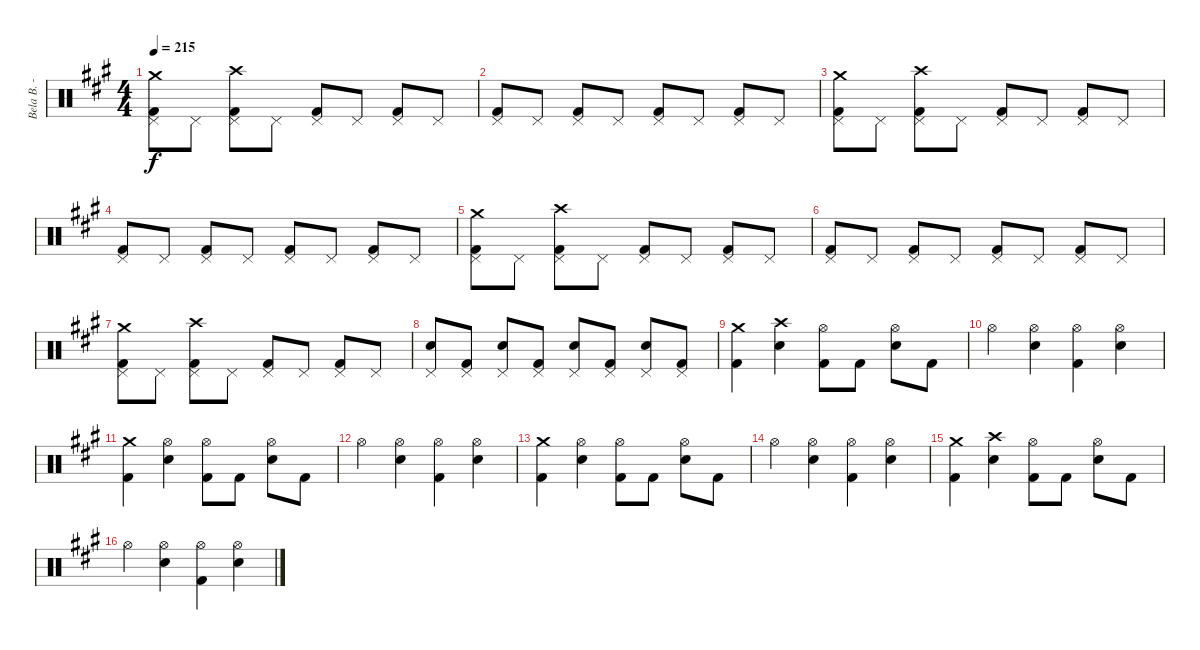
\track ("Bela B. - Schlagzeug" "Bela B. - ") {instrument percussion}
\staff {score}
\articulation defaults
\ts (4 4)
\tempo 215
\clef neutral
\ks a
("Crash medium (hit)" "Pedal Hi-Hat (hit)" "Kick (hit) 2").8{dy f} "Pedal Hi-Hat (hit)".8 ("Crash high (hit)" "Pedal Hi-Hat (hit)" "Kick (hit) 2").8 "Pedal Hi-Hat (hit)".8 ("Pedal Hi-Hat (hit)" "Kick (hit) 2").8 "Pedal Hi-Hat (hit)".8 ("Pedal Hi-Hat (hit)" "Kick (hit) 2").8 "Pedal Hi-Hat (hit)".8 |
("Pedal Hi-Hat (hit)" "Kick (hit) 2").8 "Pedal Hi-Hat (hit)".8 ("Pedal Hi-Hat (hit)" "Kick (hit) 2").8 "Pedal Hi-Hat (hit)".8 ("Pedal Hi-Hat (hit)" "Kick (hit) 2").8 "Pedal Hi-Hat (hit)".8 ("Pedal Hi-Hat (hit)" "Kick (hit) 2").8 "Pedal Hi-Hat (hit)".8 |
("Crash medium (hit)" "Pedal Hi-Hat (hit)" "Kick (hit) 2").8 "Pedal Hi-Hat (hit)".8 ("Crash high (hit)" "Pedal Hi-Hat (hit)" "Kick (hit) 2").8 "Pedal Hi-Hat (hit)".8 ("Pedal Hi-Hat (hit)" "Kick (hit) 2").8 "Pedal Hi-Hat (hit)".8 ("Pedal Hi-Hat (hit)" "Kick (hit) 2").8 "Pedal Hi-Hat (hit)".8 |
("Pedal Hi-Hat (hit)" "Kick (hit) 2").8 "Pedal Hi-Hat (hit)".8 ("Pedal Hi-Hat (hit)" "Kick (hit) 2").8 "Pedal Hi-Hat (hit)".8 ("Pedal Hi-Hat (hit)" "Kick (hit) 2").8 "Pedal Hi-Hat (hit)".8 ("Pedal Hi-Hat (hit)" "Kick (hit) 2").8 "Pedal Hi-Hat (hit)".8 |
("Crash medium (hit)" "Pedal Hi-Hat (hit)" "Kick (hit) 2").8 "Pedal Hi-Hat (hit)".8 ("Crash high (hit)" "Pedal Hi-Hat (hit)" "Kick (hit) 2").8 "Pedal Hi-Hat (hit)".8 ("Pedal Hi-Hat (hit)" "Kick (hit) 2").8 "Pedal Hi-Hat (hit)".8 ("Pedal Hi-Hat (hit)" "Kick (hit) 2").8 "Pedal Hi-Hat (hit)".8 |
("Pedal Hi-Hat (hit)" "Kick (hit) 2").8 "Pedal Hi-Hat (hit)".8 ("Pedal Hi-Hat (hit)" "Kick (hit) 2").8 "Pedal Hi-Hat (hit)".8 ("Pedal Hi-Hat (hit)" "Kick (hit) 2").8 "Pedal Hi-Hat (hit)".8 ("Pedal Hi-Hat (hit)" "Kick (hit) 2").8 "Pedal Hi-Hat (hit)".8 |
("Crash medium (hit)" "Pedal Hi-Hat (hit)" "Kick (hit) 2").8 "Pedal Hi-Hat (hit)".8 ("Crash high (hit)" "Pedal Hi-Hat (hit)" "Kick (hit) 2").8 "Pedal Hi-Hat (hit)".8 ("Pedal Hi-Hat (hit)" "Kick (hit) 2").8 "Pedal Hi-Hat (hit)".8 ("Pedal Hi-Hat (hit)" "Kick (hit) 2").8 "Pedal Hi-Hat (hit)".8 |
("Pedal Hi-Hat (hit)" "Snare (hit) 2").8 ("Pedal Hi-Hat (hit)" "Kick (hit) 2").8 ("Pedal Hi-Hat (hit)" "Snare (hit) 2").8 ("Pedal Hi-Hat (hit)" "Kick (hit) 2").8 ("Pedal Hi-Hat (hit)" "Snare (hit) 2").8 ("Pedal Hi-Hat (hit)" "Kick (hit) 2").8 ("Pedal Hi-Hat (hit)" "Snare (hit) 2").8 ("Pedal Hi-Hat (hit)" "Kick (hit) 2").8 |
("Crash medium (hit)" "Kick (hit) 2").4 ("Crash high (hit)" "Snare (hit) 2").4 ("Hi-Hat (open)" "Kick (hit) 2").8 "Kick (hit) 2".8 ("Hi-Hat (open)" "Snare (hit) 2").8 "Kick (hit) 2".8 |
"Hi-Hat (open)".4 ("Hi-Hat (open)" "Snare (hit) 2").4 ("Hi-Hat (open)" "Kick (hit) 2").4 ("Hi-Hat (open)" "Snare (hit) 2").4 |
("Crash medium (hit)" "Kick (hit) 2").4 ("Hi-Hat (open)" "Snare (hit) 2").4 ("Hi-Hat (open)" "Kick (hit) 2").8 "Kick (hit) 2".8 ("Hi-Hat (open)" "Snare (hit) 2").8 "Kick (hit) 2".8 |
"Hi-Hat (open)".4 ("Hi-Hat (open)" "Snare (hit) 2").4 ("Hi-Hat (open)" "Kick (hit) 2").4 ("Hi-Hat (open)" "Snare (hit) 2").4 |
("Crash medium (hit)" "Kick (hit) 2").4 ("Hi-Hat (open)" "Snare (hit) 2").4 ("Hi-Hat (open)" "Kick (hit) 2").8 "Kick (hit) 2".8 ("Hi-Hat (open)" "Snare (hit) 2").8 "Kick (hit) 2".8 |
"Hi-Hat (open)".4 ("Hi-Hat (open)" "Snare (hit) 2").4 ("Hi-Hat (open)" "Kick (hit) 2").4 ("Hi-Hat (open)" "Snare (hit) 2").4 |
("Crash medium (hit)" "Kick (hit) 2").4 ("Crash high (hit)" "Snare (hit) 2").4 ("Hi-Hat (open)" "Kick (hit) 2").8 "Kick (hit) 2".8 ("Hi-Hat (open)" "Snare (hit) 2").8 "Kick (hit) 2".8 |
"Hi-Hat (open)".4 ("Hi-Hat (open)" "Snare (hit) 2").4 ("Hi-Hat (open)" "Kick (hit) 2").4 ("Hi-Hat (open)" "Snare (hit) 2").4
